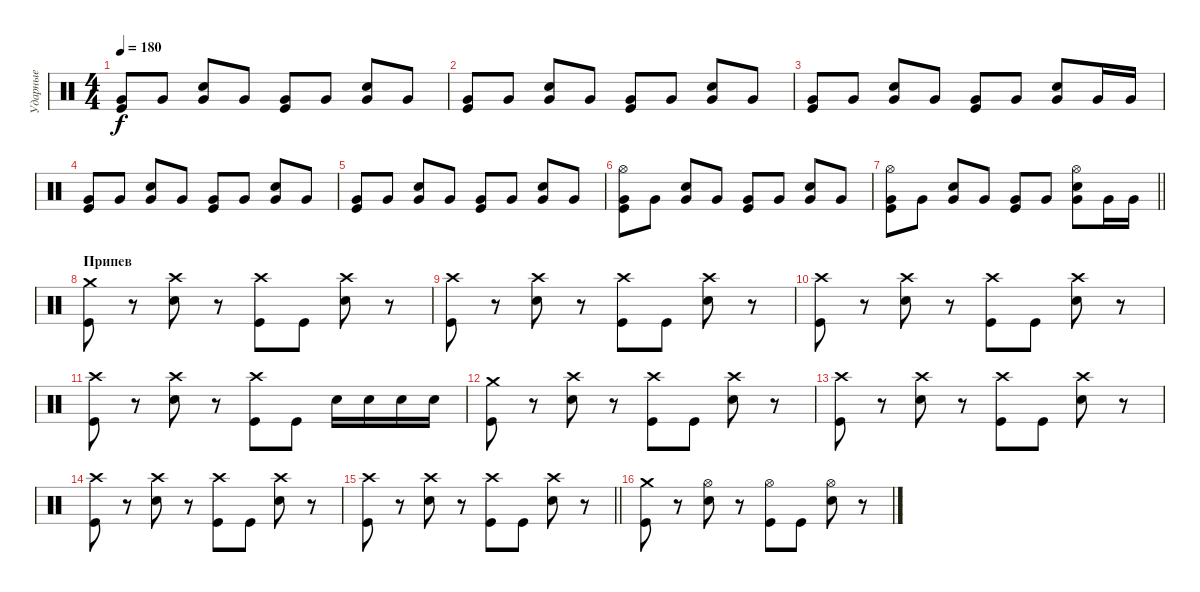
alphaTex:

\track ("Ударные" "Ударные") {instrument percussion}
\staff {score}
\articulation defaults
\ts (4 4)
\tempo 180
\clef neutral
\ks c
("Very Low Tom (hit)" "Kick (hit)").8{dy f} "Very Low Tom (hit)".8 ("Very Low Tom (hit)" "Electric Snare (hit)").8 "Very Low Tom (hit)".8 ("Very Low Tom (hit)" "Kick (hit)").8 "Very Low Tom (hit)".8 ("Very Low Tom (hit)" "Electric Snare (hit)").8 "Very Low Tom (hit)".8 |
("Very Low Tom (hit)" "Kick (hit)").8 "Very Low Tom (hit)".8 ("Very Low Tom (hit)" "Electric Snare (hit)").8 "Very Low Tom (hit)".8 ("Very Low Tom (hit)" "Kick (hit)").8 "Very Low Tom (hit)".8 ("Very Low Tom (hit)" "Electric Snare (hit)").8 "Very Low Tom (hit)".8 |
("Very Low Tom (hit)" "Kick (hit)").8 "Very Low Tom (hit)".8 ("Very Low Tom (hit)" "Electric Snare (hit)").8 "Very Low Tom (hit)".8 ("Very Low Tom (hit)" "Kick (hit)").8 "Very Low Tom (hit)".8 ("Very Low Tom (hit)" "Electric Snare (hit)").8 "Very Low Tom (hit)".16 "Very Low Tom (hit)".16 |
("Very Low Tom (hit)" "Kick (hit)").8 "Very Low Tom (hit)".8 ("Very Low Tom (hit)" "Electric Snare (hit)").8 "Very Low Tom (hit)".8 ("Very Low Tom (hit)" "Kick (hit)").8 "Very Low Tom (hit)".8 ("Very Low Tom (hit)" "Electric Snare (hit)").8 "Very Low Tom (hit)".8 |
("Very Low Tom (hit)" "Kick (hit)").8 "Very Low Tom (hit)".8 ("Very Low Tom (hit)" "Electric Snare (hit)").8 "Very Low Tom (hit)".8 ("Very Low Tom (hit)" "Kick (hit)").8 "Very Low Tom (hit)".8 ("Very Low Tom (hit)" "Electric Snare (hit)").8 "Very Low Tom (hit)".8 |
("Very Low Tom (hit)" "Kick (hit)" "Hi-Hat (open)").8 "Very Low Tom (hit)".8 ("Very Low Tom (hit)" "Electric Snare (hit)").8 "Very Low Tom (hit)".8 ("Very Low Tom (hit)" "Kick (hit)").8 "Very Low Tom (hit)".8 ("Very Low Tom (hit)" "Electric Snare (hit)").8 "Very Low Tom (hit)".8 |
\barLineRight lightlight
("Very Low Tom (hit)" "Kick (hit)" "Hi-Hat (open)").8 "Very Low Tom (hit)".8 ("Very Low Tom (hit)" "Electric Snare (hit)").8 "Very Low Tom (hit)".8 ("Very Low Tom (hit)" "Kick (hit)").8 "Very Low Tom (hit)".8 ("Very Low Tom (hit)" "Electric Snare (hit)" "Hi-Hat (open)").8 "Very Low Tom (hit)".16 "Very Low Tom (hit)".16 |
\section ("" "Припев")
("Crash medium (hit)" "Kick (hit)").8 r.8 ("Crash high (hit)" "Electric Snare (hit)").8 r.8 ("Crash high (hit)" "Kick (hit)").8 "Kick (hit)".8 ("Crash high (hit)" "Electric Snare (hit)").8 r.8 |
("Crash high (hit)" "Kick (hit)").8 r.8 ("Crash high (hit)" "Electric Snare (hit)").8 r.8 ("Crash high (hit)" "Kick (hit)").8 "Kick (hit)".8 ("Crash high (hit)" "Electric Snare (hit)").8 r.8 |
("Crash high (hit)" "Kick (hit)").8 r.8 ("Crash high (hit)" "Electric Snare (hit)").8 r.8 ("Crash high (hit)" "Kick (hit)").8 "Kick (hit)".8 ("Crash high (hit)" "Electric Snare (hit)").8 r.8 |
("Crash high (hit)" "Kick (hit)").8 r.8 ("Crash high (hit)" "Electric Snare (hit)").8 r.8 ("Crash high (hit)" "Kick (hit)").8 "Kick (hit)".8 "Electric Snare (hit)".16 "Electric Snare (hit)".16 "Electric Snare (hit)".16 "Electric Snare (hit)".16 |
("Crash medium (hit)" "Kick (hit)").8 r.8 ("Crash high (hit)" "Electric Snare (hit)").8 r.8 ("Crash high (hit)" "Kick (hit)").8 "Kick (hit)".8 ("Crash high (hit)" "Electric Snare (hit)").8 r.8 |
("Crash high (hit)" "Kick (hit)").8 r.8 ("Crash high (hit)" "Electric Snare (hit)").8 r.8 ("Crash high (hit)" "Kick (hit)").8 "Kick (hit)".8 ("Crash high (hit)" "Electric Snare (hit)").8 r.8 |
("Crash high (hit)" "Kick (hit)").8 r.8 ("Crash high (hit)" "Electric Snare (hit)").8 r.8 ("Crash high (hit)" "Kick (hit)").8 "Kick (hit)".8 ("Crash high (hit)" "Electric Snare (hit)").8 r.8 |
\barLineRight lightlight
("Crash high (hit)" "Kick (hit)").8 r.8 ("Crash high (hit)" "Electric Snare (hit)").8 r.8 ("Crash high (hit)" "Kick (hit)").8 "Kick (hit)".8 ("Crash high (hit)" "Electric Snare (hit)").8 r.8 |
\section ("" " ")
("Crash medium (hit)" "Kick (hit)").8 r.8 ("Hi-Hat (open)" "Electric Snare (hit)").8 r.8 ("Hi-Hat (open)" "Kick (hit)").8 "Kick (hit)".8 ("Hi-Hat (open)" "Electric Snare (hit)").8 r.8
